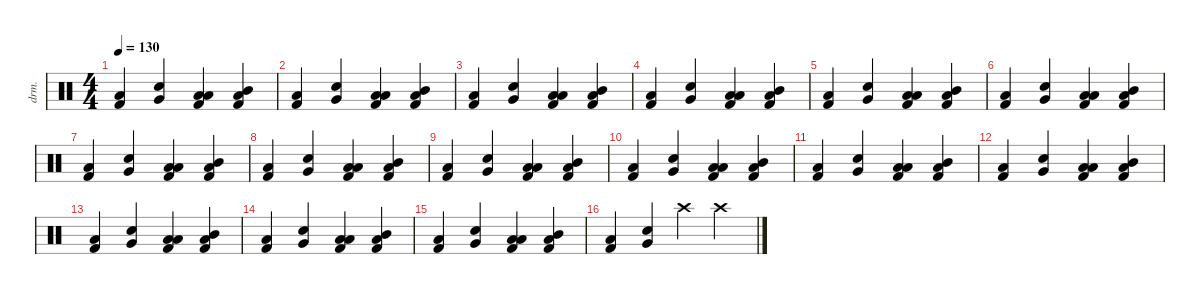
\defaultSystemsLayout 4
\hideDynamics
\bracketExtendMode nobrackets
\otherSystemsTrackNameOrientation horizontal
\track ("Percussion" "drm.") {instrument percussion}
\staff {score}
\articulation defaults
\ts (4 4)
\tempo 130
\clef neutral
\ks c
("Kick (hit) 2" "Low Floor Tom (hit)").4{dy f} ("Very Low Tom (hit)" "Snare (hit) 2").4 ("Low Floor Tom (hit)" "Kick (hit) 2" "Low Tom (hit)").4 ("Low Tom (hit)" "Kick (hit) 2" "Mid Tom (hit)").4 |
("Kick (hit) 2" "Low Floor Tom (hit)").4 ("Very Low Tom (hit)" "Snare (hit) 2").4 ("Low Floor Tom (hit)" "Kick (hit) 2" "Low Tom (hit)").4 ("Low Tom (hit)" "Kick (hit) 2" "Mid Tom (hit)").4 |
("Kick (hit) 2" "Low Floor Tom (hit)").4 ("Very Low Tom (hit)" "Snare (hit) 2").4 ("Low Floor Tom (hit)" "Kick (hit) 2" "Low Tom (hit)").4 ("Low Tom (hit)" "Kick (hit) 2" "Mid Tom (hit)").4 |
("Kick (hit) 2" "Low Floor Tom (hit)").4 ("Very Low Tom (hit)" "Snare (hit) 2").4 ("Low Floor Tom (hit)" "Kick (hit) 2" "Low Tom (hit)").4 ("Low Tom (hit)" "Kick (hit) 2" "Mid Tom (hit)").4 |
("Kick (hit) 2" "Low Floor Tom (hit)").4 ("Very Low Tom (hit)" "Snare (hit) 2").4 ("Low Floor Tom (hit)" "Kick (hit) 2" "Low Tom (hit)").4 ("Low Tom (hit)" "Kick (hit) 2" "Mid Tom (hit)").4 |
("Kick (hit) 2" "Low Floor Tom (hit)").4 ("Very Low Tom (hit)" "Snare (hit) 2").4 ("Low Floor Tom (hit)" "Kick (hit) 2" "Low Tom (hit)").4 ("Low Tom (hit)" "Kick (hit) 2" "Mid Tom (hit)").4 |
("Kick (hit) 2" "Low Floor Tom (hit)").4 ("Very Low Tom (hit)" "Snare (hit) 2").4 ("Low Floor Tom (hit)" "Kick (hit) 2" "Low Tom (hit)").4 ("Low Tom (hit)" "Kick (hit) 2" "Mid Tom (hit)").4 |
("Kick (hit) 2" "Low Floor Tom (hit)").4 ("Very Low Tom (hit)" "Snare (hit) 2").4 ("Low Floor Tom (hit)" "Kick (hit) 2" "Low Tom (hit)").4 ("Low Tom (hit)" "Kick (hit) 2" "Mid Tom (hit)").4 |
("Kick (hit) 2" "Low Floor Tom (hit)").4 ("Very Low Tom (hit)" "Snare (hit) 2").4 ("Low Floor Tom (hit)" "Kick (hit) 2" "Low Tom (hit)").4 ("Low Tom (hit)" "Kick (hit) 2" "Mid Tom (hit)").4 |
("Kick (hit) 2" "Low Floor Tom (hit)").4 ("Very Low Tom (hit)" "Snare (hit) 2").4 ("Low Floor Tom (hit)" "Kick (hit) 2" "Low Tom (hit)").4 ("Low Tom (hit)" "Kick (hit) 2" "Mid Tom (hit)").4 |
("Kick (hit) 2" "Low Floor Tom (hit)").4 ("Very Low Tom (hit)" "Snare (hit) 2").4 ("Low Floor Tom (hit)" "Kick (hit) 2" "Low Tom (hit)").4 ("Low Tom (hit)" "Kick (hit) 2" "Mid Tom (hit)").4 |
("Kick (hit) 2" "Low Floor Tom (hit)").4 ("Very Low Tom (hit)" "Snare (hit) 2").4 ("Low Floor Tom (hit)" "Kick (hit) 2" "Low Tom (hit)").4 ("Low Tom (hit)" "Kick (hit) 2" "Mid Tom (hit)").4 |
("Kick (hit) 2" "Low Floor Tom (hit)").4 ("Very Low Tom (hit)" "Snare (hit) 2").4 ("Low Floor Tom (hit)" "Kick (hit) 2" "Low Tom (hit)").4 ("Low Tom (hit)" "Kick (hit) 2" "Mid Tom (hit)").4 |
("Kick (hit) 2" "Low Floor Tom (hit)").4 ("Very Low Tom (hit)" "Snare (hit) 2").4 ("Low Floor Tom (hit)" "Kick (hit) 2" "Low Tom (hit)").4 ("Low Tom (hit)" "Kick (hit) 2" "Mid Tom (hit)").4 |
("Kick (hit) 2" "Low Floor Tom (hit)").4 ("Very Low Tom (hit)" "Snare (hit) 2").4 ("Low Floor Tom (hit)" "Kick (hit) 2" "Low Tom (hit)").4 ("Low Tom (hit)" "Kick (hit) 2" "Mid Tom (hit)").4 |
("Kick (hit) 2" "Low Floor Tom (hit)").4 ("Very Low Tom (hit)" "Snare (hit) 2").4 "Crash high (hit)".4 "Crash high (hit)".4
